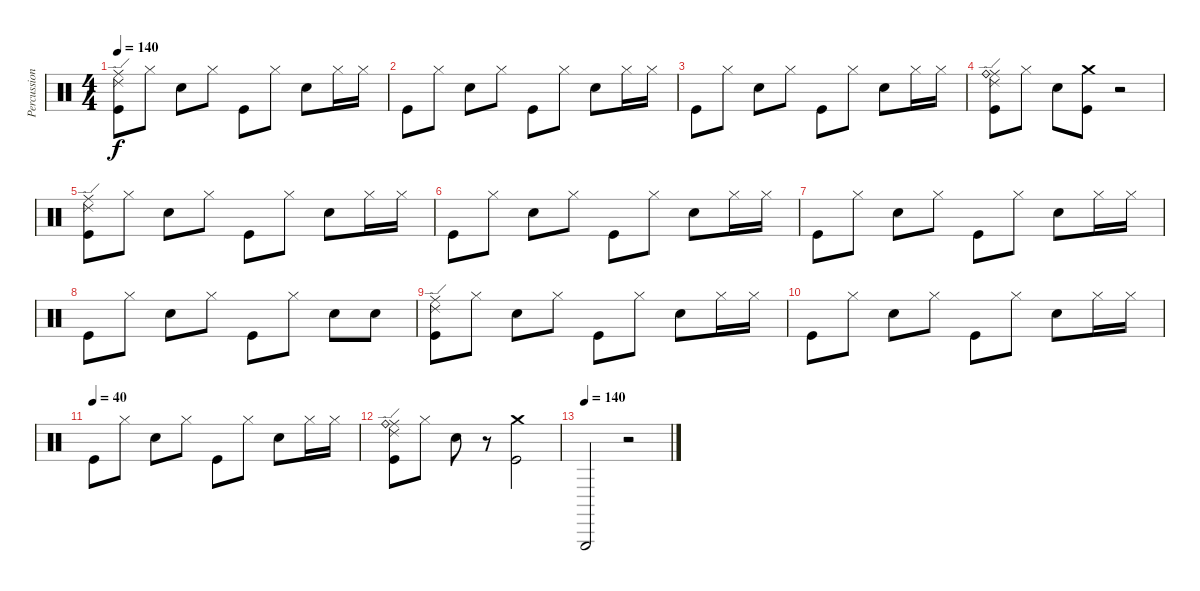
\track ("Percussion" "Percussion") {instrument percussion}
\staff {score}
\articulation defaults
\ts (4 4)
\tempo 140
\clef neutral
\ks c
("Ride (middle)" "Ride (edge) 2" "Kick (hit)").8{dy f} "Hi-Hat (closed)".8 "Snare (hit) 2".8 "Hi-Hat (closed)".8 "Kick (hit)".8 "Hi-Hat (closed)".8 "Snare (hit) 2".8 "Hi-Hat (closed)".16 "Hi-Hat (closed)".16 |
"Kick (hit)".8 "Hi-Hat (closed)".8 "Snare (hit) 2".8 "Hi-Hat (closed)".8 "Kick (hit)".8 "Hi-Hat (closed)".8 "Snare (hit) 2".8 "Hi-Hat (closed)".16 "Hi-Hat (closed)".16 |
"Kick (hit)".8 "Hi-Hat (closed)".8 "Snare (hit) 2".8 "Hi-Hat (closed)".8 "Kick (hit)".8 "Hi-Hat (closed)".8 "Snare (hit) 2".8 "Hi-Hat (closed)".16 "Hi-Hat (closed)".16 |
("Ride (edge) 2" "Ride (middle)" "Ride (bell)" "Kick (hit)").8 "Hi-Hat (closed)".8 "Snare (hit) 2".8 ("Crash medium (hit)" "Kick (hit)").8 r.2 |
("Ride (middle)" "Ride (edge) 2" "Kick (hit)").8 "Hi-Hat (closed)".8 "Snare (hit) 2".8 "Hi-Hat (closed)".8 "Kick (hit)".8 "Hi-Hat (closed)".8 "Snare (hit) 2".8 "Hi-Hat (closed)".16 "Hi-Hat (closed)".16 |
"Kick (hit)".8 "Hi-Hat (closed)".8 "Snare (hit) 2".8 "Hi-Hat (closed)".8 "Kick (hit)".8 "Hi-Hat (closed)".8 "Snare (hit) 2".8 "Hi-Hat (closed)".16 "Hi-Hat (closed)".16 |
"Kick (hit)".8 "Hi-Hat (closed)".8 "Snare (hit) 2".8 "Hi-Hat (closed)".8 "Kick (hit)".8 "Hi-Hat (closed)".8 "Snare (hit) 2".8 "Hi-Hat (closed)".16 "Hi-Hat (closed)".16 |
"Kick (hit)".8 "Hi-Hat (closed)".8 "Snare (hit) 2".8 "Hi-Hat (closed)".8 "Kick (hit)".8 "Hi-Hat (closed)".8 "Snare (hit) 2".8 "Snare (hit) 2".8 |
("Ride (middle)" "Ride (edge) 2" "Kick (hit)").8 "Hi-Hat (closed)".8 "Snare (hit) 2".8 "Hi-Hat (closed)".8 "Kick (hit)".8 "Hi-Hat (closed)".8 "Snare (hit) 2".8 "Hi-Hat (closed)".16 "Hi-Hat (closed)".16 |
"Kick (hit)".8 "Hi-Hat (closed)".8 "Snare (hit) 2".8 "Hi-Hat (closed)".8 "Kick (hit)".8 "Hi-Hat (closed)".8 "Snare (hit) 2".8 "Hi-Hat (closed)".16 "Hi-Hat (closed)".16 |
\tempo (40)
"Kick (hit)".8 "Hi-Hat (closed)".8 "Snare (hit) 2".8 "Hi-Hat (closed)".8 "Kick (hit)".8 "Hi-Hat (closed)".8 "Snare (hit) 2".8 "Hi-Hat (closed)".16 "Hi-Hat (closed)".16 |
("Ride (edge) 2" "Ride (middle)" "Ride (bell)" "Kick (hit)").8 "Hi-Hat (closed)".8 "Snare (hit) 2".8 r.8 ("Crash medium (hit)" "Kick (hit)").2 |
\tempo (140)
"Triangle (hit)".2 r.2
